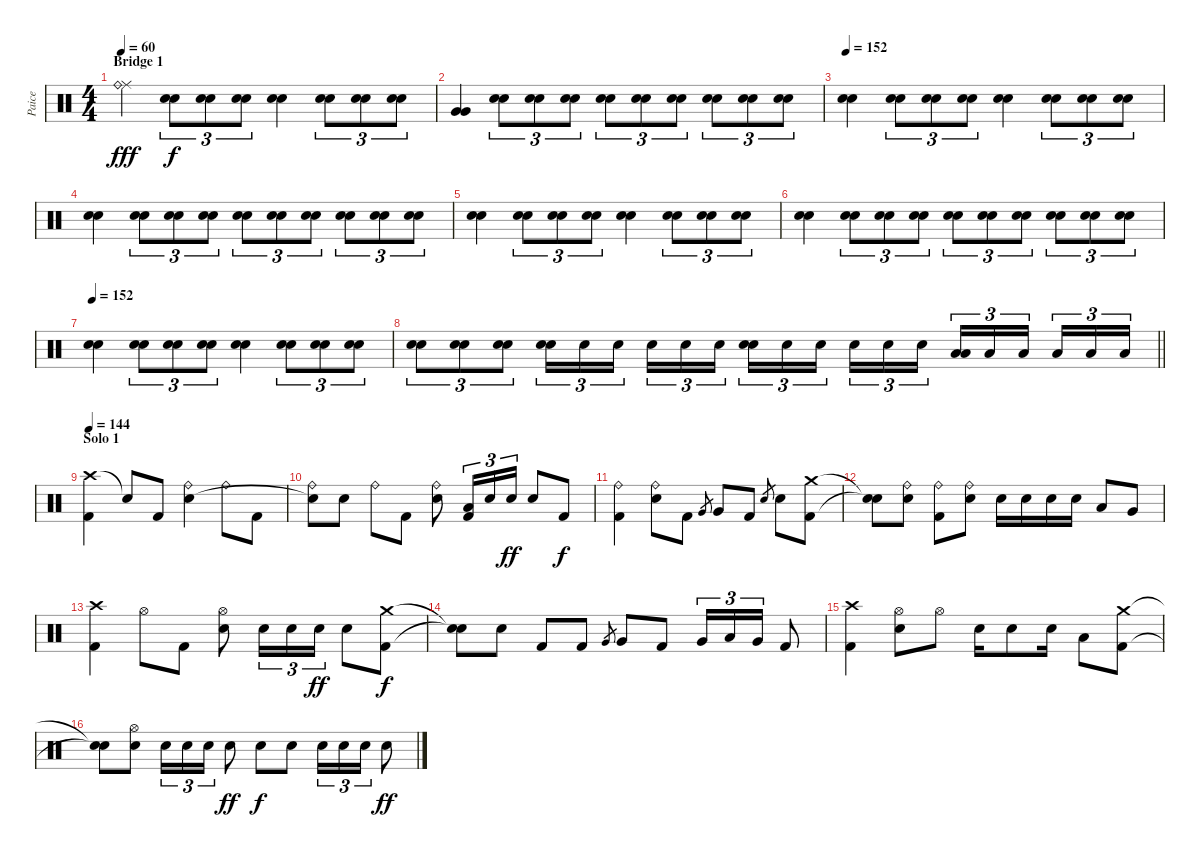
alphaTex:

\track ("Paice" "Paice") {instrument percussion}
\staff {score}
\articulation defaults
\ts (4 4)
\section ("" "Bridge 1")
\tempo 60
\tempo 152
\tempo 60
\clef neutral
\ks c
("Ride (middle)" "Ride (bell)").4{dy fff} ("Electric Snare (hit)" "Electric Snare (hit)").8{tu (3 2) dy f} ("Electric Snare (hit)" "Electric Snare (hit)").8{tu (3 2)} ("Electric Snare (hit)" "Electric Snare (hit)").8{tu (3 2)} ("Electric Snare (hit)" "Electric Snare (hit)").4 ("Electric Snare (hit)" "Electric Snare (hit)").8{tu (3 2)} ("Electric Snare (hit)" "Electric Snare (hit)").8{tu (3 2)} ("Electric Snare (hit)" "Electric Snare (hit)").8{tu (3 2)} |
("Very Low Tom (hit)" "Very Low Tom (hit)").4 ("Electric Snare (hit)" "Electric Snare (hit)").8{tu (3 2)} ("Electric Snare (hit)" "Electric Snare (hit)").8{tu (3 2)} ("Electric Snare (hit)" "Electric Snare (hit)").8{tu (3 2)} ("Electric Snare (hit)" "Electric Snare (hit)").8{tu (3 2)} ("Electric Snare (hit)" "Electric Snare (hit)").8{tu (3 2)} ("Electric Snare (hit)" "Electric Snare (hit)").8{tu (3 2)} ("Electric Snare (hit)" "Electric Snare (hit)").8{tu (3 2)} ("Electric Snare (hit)" "Electric Snare (hit)").8{tu (3 2)} ("Electric Snare (hit)" "Electric Snare (hit)").8{tu (3 2)} |
\tempo 152
("Electric Snare (hit)" "Electric Snare (hit)").4 ("Electric Snare (hit)" "Electric Snare (hit)").8{tu (3 2)} ("Electric Snare (hit)" "Electric Snare (hit)").8{tu (3 2)} ("Electric Snare (hit)" "Electric Snare (hit)").8{tu (3 2)} ("Electric Snare (hit)" "Electric Snare (hit)").4 ("Electric Snare (hit)" "Electric Snare (hit)").8{tu (3 2)} ("Electric Snare (hit)" "Electric Snare (hit)").8{tu (3 2)} ("Electric Snare (hit)" "Electric Snare (hit)").8{tu (3 2)} |
("Electric Snare (hit)" "Electric Snare (hit)").4 ("Electric Snare (hit)" "Electric Snare (hit)").8{tu (3 2)} ("Electric Snare (hit)" "Electric Snare (hit)").8{tu (3 2)} ("Electric Snare (hit)" "Electric Snare (hit)").8{tu (3 2)} ("Electric Snare (hit)" "Electric Snare (hit)").8{tu (3 2)} ("Electric Snare (hit)" "Electric Snare (hit)").8{tu (3 2)} ("Electric Snare (hit)" "Electric Snare (hit)").8{tu (3 2)} ("Electric Snare (hit)" "Electric Snare (hit)").8{tu (3 2)} ("Electric Snare (hit)" "Electric Snare (hit)").8{tu (3 2)} ("Electric Snare (hit)" "Electric Snare (hit)").8{tu (3 2)} |
("Electric Snare (hit)" "Electric Snare (hit)").4 ("Electric Snare (hit)" "Electric Snare (hit)").8{tu (3 2)} ("Electric Snare (hit)" "Electric Snare (hit)").8{tu (3 2)} ("Electric Snare (hit)" "Electric Snare (hit)").8{tu (3 2)} ("Electric Snare (hit)" "Electric Snare (hit)").4 ("Electric Snare (hit)" "Electric Snare (hit)").8{tu (3 2)} ("Electric Snare (hit)" "Electric Snare (hit)").8{tu (3 2)} ("Electric Snare (hit)" "Electric Snare (hit)").8{tu (3 2)} |
("Electric Snare (hit)" "Electric Snare (hit)").4 ("Electric Snare (hit)" "Electric Snare (hit)").8{tu (3 2)} ("Electric Snare (hit)" "Electric Snare (hit)").8{tu (3 2)} ("Electric Snare (hit)" "Electric Snare (hit)").8{tu (3 2)} ("Electric Snare (hit)" "Electric Snare (hit)").8{tu (3 2)} ("Electric Snare (hit)" "Electric Snare (hit)").8{tu (3 2)} ("Electric Snare (hit)" "Electric Snare (hit)").8{tu (3 2)} ("Electric Snare (hit)" "Electric Snare (hit)").8{tu (3 2)} ("Electric Snare (hit)" "Electric Snare (hit)").8{tu (3 2)} ("Electric Snare (hit)" "Electric Snare (hit)").8{tu (3 2)} |
\tempo 152
("Electric Snare (hit)" "Electric Snare (hit)").4 ("Electric Snare (hit)" "Electric Snare (hit)").8{tu (3 2)} ("Electric Snare (hit)" "Electric Snare (hit)").8{tu (3 2)} ("Electric Snare (hit)" "Electric Snare (hit)").8{tu (3 2)} ("Electric Snare (hit)" "Electric Snare (hit)").4 ("Electric Snare (hit)" "Electric Snare (hit)").8{tu (3 2)} ("Electric Snare (hit)" "Electric Snare (hit)").8{tu (3 2)} ("Electric Snare (hit)" "Electric Snare (hit)").8{tu (3 2)} |
\barLineRight lightlight
("Electric Snare (hit)" "Electric Snare (hit)").8{tu (3 2)} ("Electric Snare (hit)" "Electric Snare (hit)").8{tu (3 2)} ("Electric Snare (hit)" "Electric Snare (hit)").8{tu (3 2)} ("Electric Snare (hit)" "Electric Snare (hit)").16{tu (3 2)} "Electric Snare (hit)".16{tu (3 2)} "Electric Snare (hit)".16{tu (3 2) beam splitsecondary} "Electric Snare (hit)".16{tu (3 2)} "Electric Snare (hit)".16{tu (3 2)} "Electric Snare (hit)".16{tu (3 2)} ("Electric Snare (hit)" "Electric Snare (hit)").16{tu (3 2)} "Electric Snare (hit)".16{tu (3 2)} "Electric Snare (hit)".16{tu (3 2) beam splitsecondary} "Electric Snare (hit)".16{tu (3 2)} "Electric Snare (hit)".16{tu (3 2)} "Electric Snare (hit)".16{tu (3 2)} ("Low Tom (hit)" "Low Tom (hit)").16{tu (3 2)} "Low Tom (hit)".16{tu (3 2)} "Low Tom (hit)".16{tu (3 2) beam splitsecondary} "Low Tom (hit)".16{tu (3 2)} "Low Tom (hit)".16{tu (3 2)} "Low Tom (hit)".16{tu (3 2)} |
\section ("" "Solo 1")
\tempo 144
("Crash high (hit)" "Kick (hit) 2").4 "Snare (hit)"{t}.8 "Kick (hit) 2".8 ("Ride (bell)" "Electric Snare (hit)").4 "Ride (bell)".8 "Kick (hit) 2".8 |
("Ride (bell)" "Snare (hit)"{t}).8 "Electric Snare (hit)".8 "Ride (bell)".8 "Kick (hit) 2".8 ("Ride (bell)" "Electric Snare (hit)").8 ("Low Tom (hit)" "Kick (hit) 2").16{tu (3 2)} "Electric Snare (hit)".16{tu (3 2)} "Electric Snare (hit)".16{tu (3 2) dy ff} "Electric Snare (hit)".8 "Kick (hit) 2".8{dy f} |
("Ride (bell)" "Kick (hit) 2").4 ("Ride (bell)" "Electric Snare (hit)").8 "Kick (hit) 2".8 "Very Low Tom (hit)".8{gr} "Very Low Tom (hit)".8 "Kick (hit) 2".8 "Electric Snare (hit)".8{gr} "Electric Snare (hit)".8 ("Crash medium (hit)" "Kick (hit) 2").8 |
("Snare (hit)"{t} "Snare (hit)"{t}).8 ("Ride (bell)" "Electric Snare (hit)").8 ("Ride (bell)" "Kick (hit) 2").8 ("Ride (bell)" "Electric Snare (hit)").8 "Electric Snare (hit)".16 "Electric Snare (hit)".16 "Electric Snare (hit)".16 "Electric Snare (hit)".16 "Low Tom (hit)".8 "Very Low Tom (hit)".8 |
("Crash high (hit)" "Kick (hit) 2").4 "Hi-Hat (open)".8 "Kick (hit) 2".8 ("Hi-Hat (open)" "Electric Snare (hit)").8 "Electric Snare (hit)".16{tu (3 2)} "Electric Snare (hit)".16{tu (3 2)} "Electric Snare (hit)".16{tu (3 2) dy ff} "Electric Snare (hit)".8 ("Crash medium (hit)" "Kick (hit) 2").8{dy f} |
("Snare (hit)"{t} "Snare (hit)"{t}).8 "Electric Snare (hit)".8 "Kick (hit) 2".8 "Kick (hit) 2".8 "Very Low Tom (hit)".8{gr} "Very Low Tom (hit)".8 "Kick (hit) 2".8 "Very Low Tom (hit)".16{tu (3 2)} "Low Tom (hit)".16{tu (3 2)} "Very Low Tom (hit)".16{tu (3 2)} "Kick (hit) 2".8 |
("Crash high (hit)" "Kick (hit) 2").4 ("Hi-Hat (open)" "Electric Snare (hit)").8 "Hi-Hat (open)".8 "Electric Snare (hit)".16 "Electric Snare (hit)".8 "Electric Snare (hit)".16 "Low Tom (hit)".8 ("Crash medium (hit)" "Kick (hit) 2").8 |
("Snare (hit)"{t} "Snare (hit)"{t}).8 ("Hi-Hat (open)" "Electric Snare (hit)").8 "Electric Snare (hit)".16{tu (3 2)} "Electric Snare (hit)".16{tu (3 2)} "Electric Snare (hit)".16{tu (3 2)} "Electric Snare (hit)".8{dy ff} "Electric Snare (hit)".8{dy f} "Electric Snare (hit)".8 "Electric Snare (hit)".16{tu (3 2)} "Electric Snare (hit)".16{tu (3 2)} "Electric Snare (hit)".16{tu (3 2)} "Electric Snare (hit)".8{dy ff}
